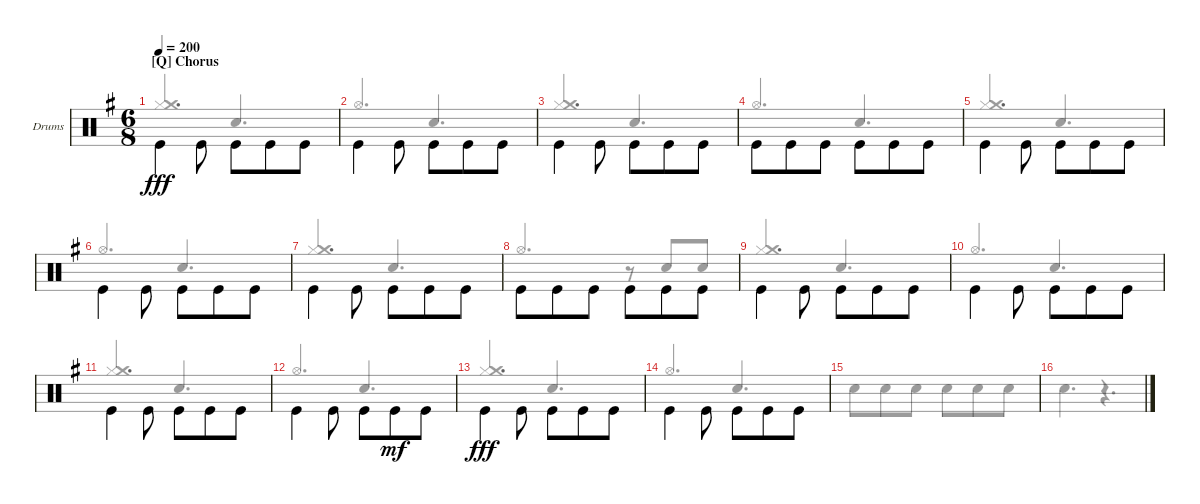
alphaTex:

\bracketExtendMode groupsimilarinstruments
\firstSystemTrackNameOrientation horizontal
\otherSystemsTrackNameOrientation horizontal
\track ("Drumkit" "Drums") {instrument percussion}
\staff {score}
\articulation defaults
\voice
\ts (6 8)
\section ("Q" "Chorus")
\tempo 200
\clef neutral
\ks eminor "Kick (hit)".4{dy fff beam invert} "Kick (hit)".8{beam invert} "Kick (hit)".8{beam invert} "Kick (hit)".8 "Kick (hit)".8
|
"Kick (hit)".4{beam invert} "Kick (hit)".8{beam invert} "Kick (hit)".8 "Kick (hit)".8{beam invert} "Kick (hit)".8 |
"Kick (hit)".4{beam invert} "Kick (hit)".8{beam invert} "Kick (hit)".8{beam invert} "Kick (hit)".8 "Kick (hit)".8 |
"Kick (hit)".8{beam invert} "Kick (hit)".8{beam invert} "Kick (hit)".8{beam invert} "Kick (hit)".8 "Kick (hit)".8 "Kick (hit)".8{beam invert} |
"Kick (hit)".4{beam invert} "Kick (hit)".8{beam invert} "Kick (hit)".8{beam invert} "Kick (hit)".8 "Kick (hit)".8 |
"Kick (hit)".4{beam invert} "Kick (hit)".8{beam invert} "Kick (hit)".8 "Kick (hit)".8{beam invert} "Kick (hit)".8 |
"Kick (hit)".4{beam invert} "Kick (hit)".8{beam invert} "Kick (hit)".8{beam invert} "Kick (hit)".8 "Kick (hit)".8 |
"Kick (hit)".8{beam invert} "Kick (hit)".8{beam invert} "Kick (hit)".8{beam invert} "Kick (hit)".8 "Kick (hit)".8 "Kick (hit)".8{beam invert} |
"Kick (hit)".4{beam invert} "Kick (hit)".8{beam invert} "Kick (hit)".8{beam invert} "Kick (hit)".8 "Kick (hit)".8 |
"Kick (hit)".4{beam invert} "Kick (hit)".8{beam invert} "Kick (hit)".8 "Kick (hit)".8{beam invert} "Kick (hit)".8 |
"Kick (hit)".4{beam invert} "Kick (hit)".8{beam invert} "Kick (hit)".8{beam invert} "Kick (hit)".8 "Kick (hit)".8 |
"Kick (hit)".4{beam invert} "Kick (hit)".8{beam invert} "Kick (hit)".8 "Kick (hit)".8{dy mf beam invert} "Kick (hit)".8 |
"Kick (hit)".4{dy fff beam invert} "Kick (hit)".8{beam invert} "Kick (hit)".8{beam invert} "Kick (hit)".8 "Kick (hit)".8 |
"Kick (hit)".4{beam invert} "Kick (hit)".8{beam invert} "Kick (hit)".8 "Kick (hit)".8{beam invert} "Kick (hit)".8 |
|
\voice
\clef neutral
\ottava regular
\simile none
\ks eminor
("Hi-Hat (closed)" "Crash medium (hit)").4{d dy fff beam invert} "Snare (hit) 2".4{d beam invert} |
"Hi-Hat (open)".4{d beam invert} "Snare (hit) 2".4{d beam invert} |
("Hi-Hat (closed)" "Crash medium (hit)").4{d beam invert} "Snare (hit) 2".4{d beam invert} |
"Hi-Hat (open)".4{d beam invert} "Snare (hit) 2".4{d beam invert} |
("Hi-Hat (closed)" "Crash medium (hit)").4{d beam invert} "Snare (hit) 2".4{d beam invert} |
"Hi-Hat (open)".4{d beam invert} "Snare (hit) 2".4{d beam invert} |
("Hi-Hat (closed)" "Crash medium (hit)").4{d beam invert} "Snare (hit) 2".4{d beam invert} |
"Hi-Hat (open)".4{d beam invert} r.8 "Snare (hit) 2".8{beam invert} "Snare (hit) 2".8 |
("Hi-Hat (closed)" "Crash medium (hit)").4{d beam invert} "Snare (hit) 2".4{d beam invert} |
"Hi-Hat (open)".4{d beam invert} "Snare (hit) 2".4{d beam invert} |
("Hi-Hat (closed)" "Crash medium (hit)").4{d beam invert} "Snare (hit) 2".4{d beam invert} |
"Hi-Hat (open)".4{d beam invert} "Snare (hit) 2".4{d beam invert} |
("Hi-Hat (closed)" "Crash medium (hit)").4{d beam invert} "Snare (hit) 2".4{d beam invert} |
"Hi-Hat (open)".4{d beam invert} "Snare (hit) 2".4{d beam invert} |
"Snare (hit) 2".8 "Snare (hit) 2".8 "Snare (hit) 2".8 "Snare (hit) 2".8 "Snare (hit) 2".8 "Snare (hit) 2".8 |
"Snare (hit) 2".4{d} r.4{d}
